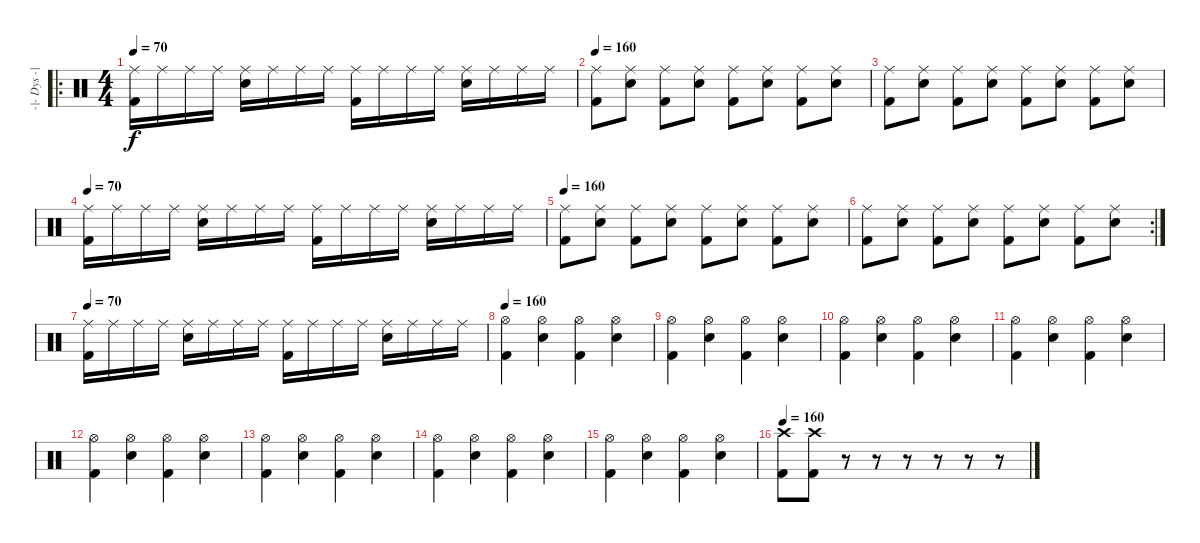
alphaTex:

\track ("-|- Dys -|-" "-|- Dys -|") {instrument percussion}
\staff {score}
\articulation defaults
\ro
\ts (4 4)
\tempo 70
\clef neutral
\ks c
("Ride (middle)" "Kick (hit) 2").16{dy f} "Ride (middle)".16 "Ride (middle)".16 "Ride (middle)".16 ("Ride (middle)" "Snare (hit) 2").16 "Ride (middle)".16 "Ride (middle)".16 "Ride (middle)".16 ("Ride (middle)" "Kick (hit) 2").16 "Ride (middle)".16 "Ride (middle)".16 "Ride (middle)".16 ("Ride (middle)" "Snare (hit) 2").16 "Ride (middle)".16 "Ride (middle)".16 "Ride (middle)".16 |
\tempo 160
("Ride (middle)" "Kick (hit) 2").8 ("Ride (middle)" "Snare (hit) 2").8 ("Ride (middle)" "Kick (hit) 2").8 ("Ride (middle)" "Snare (hit) 2").8 ("Ride (middle)" "Kick (hit) 2").8 ("Ride (middle)" "Snare (hit) 2").8 ("Ride (middle)" "Kick (hit) 2").8 ("Ride (middle)" "Snare (hit) 2").8 |
("Ride (middle)" "Kick (hit) 2").8 ("Ride (middle)" "Snare (hit) 2").8 ("Ride (middle)" "Kick (hit) 2").8 ("Ride (middle)" "Snare (hit) 2").8 ("Ride (middle)" "Kick (hit) 2").8 ("Ride (middle)" "Snare (hit) 2").8 ("Ride (middle)" "Kick (hit) 2").8 ("Ride (middle)" "Snare (hit) 2").8 |
\tempo 70
("Ride (middle)" "Kick (hit) 2").16 "Ride (middle)".16 "Ride (middle)".16 "Ride (middle)".16 ("Ride (middle)" "Snare (hit) 2").16 "Ride (middle)".16 "Ride (middle)".16 "Ride (middle)".16 ("Ride (middle)" "Kick (hit) 2").16 "Ride (middle)".16 "Ride (middle)".16 "Ride (middle)".16 ("Ride (middle)" "Snare (hit) 2").16 "Ride (middle)".16 "Ride (middle)".16 "Ride (middle)".16 |
\tempo 160
("Ride (middle)" "Kick (hit) 2").8 ("Ride (middle)" "Snare (hit) 2").8 ("Ride (middle)" "Kick (hit) 2").8 ("Ride (middle)" "Snare (hit) 2").8 ("Ride (middle)" "Kick (hit) 2").8 ("Ride (middle)" "Snare (hit) 2").8 ("Ride (middle)" "Kick (hit) 2").8 ("Ride (middle)" "Snare (hit) 2").8 |
\rc 2
("Ride (middle)" "Kick (hit) 2").8 ("Ride (middle)" "Snare (hit) 2").8 ("Ride (middle)" "Kick (hit) 2").8 ("Ride (middle)" "Snare (hit) 2").8 ("Ride (middle)" "Kick (hit) 2").8 ("Ride (middle)" "Snare (hit) 2").8 ("Ride (middle)" "Kick (hit) 2").8 ("Ride (middle)" "Snare (hit) 2").8 |
\tempo 70
("Ride (middle)" "Kick (hit) 2").16 "Ride (middle)".16 "Ride (middle)".16 "Ride (middle)".16 ("Ride (middle)" "Snare (hit) 2").16 "Ride (middle)".16 "Ride (middle)".16 "Ride (middle)".16 ("Ride (middle)" "Kick (hit) 2").16 "Ride (middle)".16 "Ride (middle)".16 "Ride (middle)".16 ("Ride (middle)" "Snare (hit) 2").16 "Ride (middle)".16 "Ride (middle)".16 "Ride (middle)".16 |
\tempo 160
("Hi-Hat (open)" "Kick (hit) 2").4 ("Hi-Hat (open)" "Snare (hit) 2").4 ("Hi-Hat (open)" "Kick (hit) 2").4 ("Hi-Hat (open)" "Snare (hit) 2").4 |
("Hi-Hat (open)" "Kick (hit) 2").4 ("Hi-Hat (open)" "Snare (hit) 2").4 ("Hi-Hat (open)" "Kick (hit) 2").4 ("Hi-Hat (open)" "Snare (hit) 2").4 |
("Hi-Hat (open)" "Kick (hit) 2").4 ("Hi-Hat (open)" "Snare (hit) 2").4 ("Hi-Hat (open)" "Kick (hit) 2").4 ("Hi-Hat (open)" "Snare (hit) 2").4 |
("Hi-Hat (open)" "Kick (hit) 2").4 ("Hi-Hat (open)" "Snare (hit) 2").4 ("Hi-Hat (open)" "Kick (hit) 2").4 ("Hi-Hat (open)" "Snare (hit) 2").4 |
("Hi-Hat (open)" "Kick (hit) 2").4 ("Hi-Hat (open)" "Snare (hit) 2").4 ("Hi-Hat (open)" "Kick (hit) 2").4 ("Hi-Hat (open)" "Snare (hit) 2").4 |
("Hi-Hat (open)" "Kick (hit) 2").4 ("Hi-Hat (open)" "Snare (hit) 2").4 ("Hi-Hat (open)" "Kick (hit) 2").4 ("Hi-Hat (open)" "Snare (hit) 2").4 |
("Hi-Hat (open)" "Kick (hit) 2").4 ("Hi-Hat (open)" "Snare (hit) 2").4 ("Hi-Hat (open)" "Kick (hit) 2").4 ("Hi-Hat (open)" "Snare (hit) 2").4 |
("Hi-Hat (open)" "Kick (hit) 2").4 ("Hi-Hat (open)" "Snare (hit) 2").4 ("Hi-Hat (open)" "Kick (hit) 2").4 ("Hi-Hat (open)" "Snare (hit) 2").4 |
\tempo 160
("Crash high (hit)" "Kick (hit) 2").8 ("Crash high (hit)" "Kick (hit) 2").8 r.8 r.8 r.8 r.8 r.8 r.8
